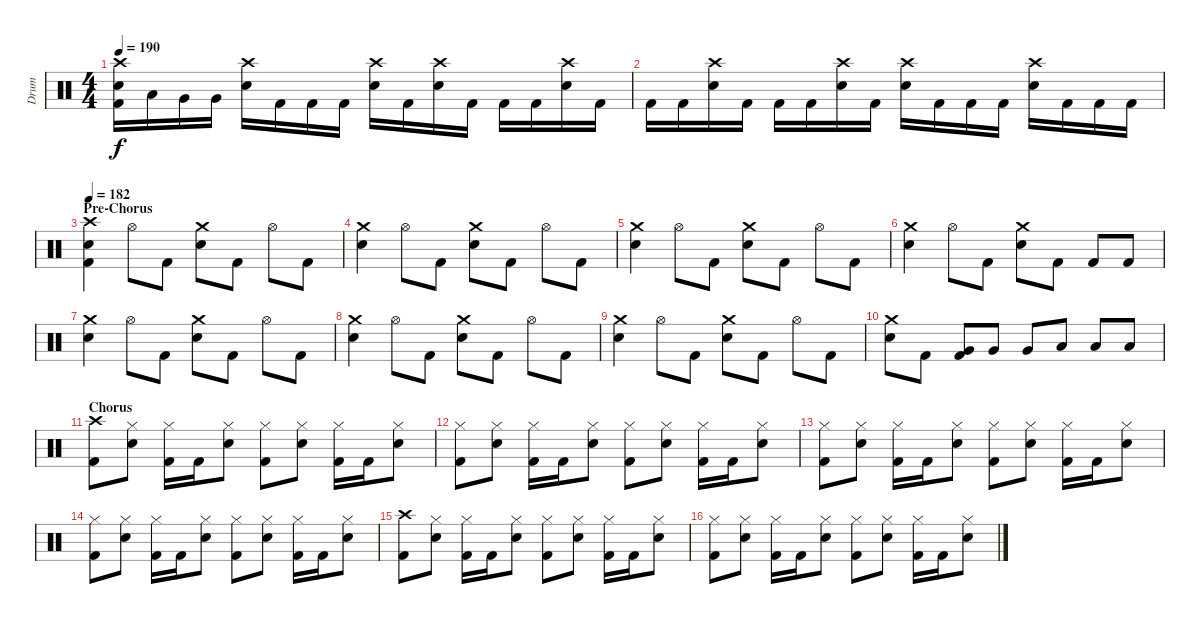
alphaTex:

\track ("Drum" "Drum") {instrument percussion}
\staff {score}
\articulation defaults
\ts (4 4)
\tempo 190
\clef neutral
\ks c
("Crash high (hit)" "Electric Snare (hit)" "Kick (hit) 2").16{dy f} "Low Tom (hit)".16 "Very Low Tom (hit)".16 "Very Low Tom (hit)".16 ("Crash high (hit)" "Electric Snare (hit)").16 "Kick (hit) 2".16 "Kick (hit) 2".16 "Kick (hit) 2".16 ("Crash high (hit)" "Electric Snare (hit)").16 "Kick (hit) 2".16 ("Crash high (hit)" "Electric Snare (hit)").16 "Kick (hit) 2".16 "Kick (hit) 2".16 "Kick (hit) 2".16 ("Crash high (hit)" "Electric Snare (hit)").16 "Kick (hit) 2".16 |
"Kick (hit) 2".16 "Kick (hit) 2".16 ("Crash high (hit)" "Electric Snare (hit)").16 "Kick (hit) 2".16 "Kick (hit) 2".16 "Kick (hit) 2".16 ("Crash high (hit)" "Electric Snare (hit)").16 "Kick (hit) 2".16 ("Crash high (hit)" "Electric Snare (hit)").16 "Kick (hit) 2".16 "Kick (hit) 2".16 "Kick (hit) 2".16 ("Crash high (hit)" "Electric Snare (hit)").16 "Kick (hit) 2".16 "Kick (hit) 2".16 "Kick (hit) 2".16 |
\section ("" "Pre-Chorus")
\tempo 182
("Crash high (hit)" "Electric Snare (hit)" "Kick (hit) 2").4 "Hi-Hat (open)".8 "Kick (hit) 2".8 ("Crash medium (hit)" "Electric Snare (hit)").8 "Kick (hit) 2".8 "Hi-Hat (open)".8 "Kick (hit) 2".8 |
("Crash medium (hit)" "Electric Snare (hit)").4 "Hi-Hat (open)".8 "Kick (hit) 2".8 ("Crash medium (hit)" "Electric Snare (hit)").8 "Kick (hit) 2".8 "Hi-Hat (open)".8 "Kick (hit) 2".8 |
("Crash medium (hit)" "Electric Snare (hit)").4 "Hi-Hat (open)".8 "Kick (hit) 2".8 ("Crash medium (hit)" "Electric Snare (hit)").8 "Kick (hit) 2".8 "Hi-Hat (open)".8 "Kick (hit) 2".8 |
("Crash medium (hit)" "Electric Snare (hit)").4 "Hi-Hat (open)".8 "Kick (hit) 2".8 ("Crash medium (hit)" "Electric Snare (hit)").8 "Kick (hit) 2".8 "Kick (hit) 2".8 "Kick (hit) 2".8 |
("Crash medium (hit)" "Electric Snare (hit)").4 "Hi-Hat (open)".8 "Kick (hit) 2".8 ("Crash medium (hit)" "Electric Snare (hit)").8 "Kick (hit) 2".8 "Hi-Hat (open)".8 "Kick (hit) 2".8 |
("Crash medium (hit)" "Electric Snare (hit)").4 "Hi-Hat (open)".8 "Kick (hit) 2".8 ("Crash medium (hit)" "Electric Snare (hit)").8 "Kick (hit) 2".8 "Hi-Hat (open)".8 "Kick (hit) 2".8 |
("Crash medium (hit)" "Electric Snare (hit)").4 "Hi-Hat (open)".8 "Kick (hit) 2".8 ("Crash medium (hit)" "Electric Snare (hit)").8 "Kick (hit) 2".8 "Hi-Hat (open)".8 "Kick (hit) 2".8 |
("Crash medium (hit)" "Electric Snare (hit)").8 "Kick (hit) 2".8 ("Very Low Tom (hit)" "Kick (hit) 2").8 "Very Low Tom (hit)".8 "Very Low Tom (hit)".8 "Low Tom (hit)".8 "Low Tom (hit)".8 "Low Tom (hit)".8 |
\section ("" "Chorus")
("Crash high (hit)" "Kick (hit) 2").8 ("Hi-Hat (closed)" "Electric Snare (hit)").8 ("Hi-Hat (closed)" "Kick (hit) 2").16 "Kick (hit) 2".16 ("Hi-Hat (closed)" "Electric Snare (hit)").8 ("Hi-Hat (closed)" "Kick (hit) 2").8 ("Hi-Hat (closed)" "Electric Snare (hit)").8 ("Hi-Hat (closed)" "Kick (hit) 2").16 "Kick (hit) 2".16 ("Hi-Hat (closed)" "Electric Snare (hit)").8 |
("Hi-Hat (closed)" "Kick (hit) 2").8 ("Hi-Hat (closed)" "Electric Snare (hit)").8 ("Hi-Hat (closed)" "Kick (hit) 2").16 "Kick (hit) 2".16 ("Hi-Hat (closed)" "Electric Snare (hit)").8 ("Hi-Hat (closed)" "Kick (hit) 2").8 ("Hi-Hat (closed)" "Electric Snare (hit)").8 ("Hi-Hat (closed)" "Kick (hit) 2").16 "Kick (hit) 2".16 ("Hi-Hat (closed)" "Electric Snare (hit)").8 |
("Hi-Hat (closed)" "Kick (hit) 2").8 ("Hi-Hat (closed)" "Electric Snare (hit)").8 ("Hi-Hat (closed)" "Kick (hit) 2").16 "Kick (hit) 2".16 ("Hi-Hat (closed)" "Electric Snare (hit)").8 ("Hi-Hat (closed)" "Kick (hit) 2").8 ("Hi-Hat (closed)" "Electric Snare (hit)").8 ("Hi-Hat (closed)" "Kick (hit) 2").16 "Kick (hit) 2".16 ("Hi-Hat (closed)" "Electric Snare (hit)").8 |
("Hi-Hat (closed)" "Kick (hit) 2").8 ("Hi-Hat (closed)" "Electric Snare (hit)").8 ("Hi-Hat (closed)" "Kick (hit) 2").16 "Kick (hit) 2".16 ("Hi-Hat (closed)" "Electric Snare (hit)").8 ("Hi-Hat (closed)" "Kick (hit) 2").8 ("Hi-Hat (closed)" "Electric Snare (hit)").8 ("Hi-Hat (closed)" "Kick (hit) 2").16 "Kick (hit) 2".16 ("Hi-Hat (closed)" "Electric Snare (hit)").8 |
("Crash high (hit)" "Kick (hit) 2").8 ("Hi-Hat (closed)" "Electric Snare (hit)").8 ("Hi-Hat (closed)" "Kick (hit) 2").16 "Kick (hit) 2".16 ("Hi-Hat (closed)" "Electric Snare (hit)").8 ("Hi-Hat (closed)" "Kick (hit) 2").8 ("Hi-Hat (closed)" "Electric Snare (hit)").8 ("Hi-Hat (closed)" "Kick (hit) 2").16 "Kick (hit) 2".16 ("Hi-Hat (closed)" "Electric Snare (hit)").8 |
("Hi-Hat (closed)" "Kick (hit) 2").8 ("Hi-Hat (closed)" "Electric Snare (hit)").8 ("Hi-Hat (closed)" "Kick (hit) 2").16 "Kick (hit) 2".16 ("Hi-Hat (closed)" "Electric Snare (hit)").8 ("Hi-Hat (closed)" "Kick (hit) 2").8 ("Hi-Hat (closed)" "Electric Snare (hit)").8 ("Hi-Hat (closed)" "Kick (hit) 2").16 "Kick (hit) 2".16 ("Hi-Hat (closed)" "Electric Snare (hit)").8
